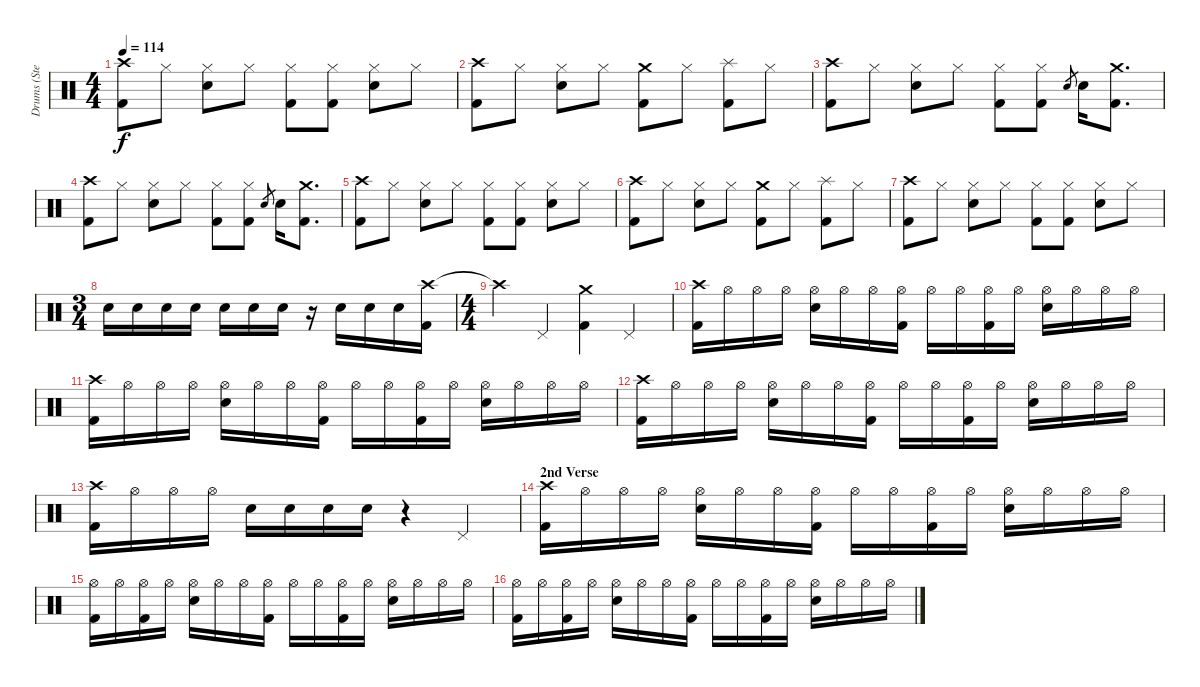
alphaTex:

\track ("Drums (Steven)" "Drums (Ste") {instrument percussion}
\staff {score}
\articulation defaults
\ts (4 4)
\tempo 114
\clef neutral
\ks c
("Crash high (hit)" "Kick (hit) 2").8{dy f} "Hi-Hat (closed)".8 ("Hi-Hat (closed)" "Snare (hit) 2").8 "Hi-Hat (closed)".8 ("Hi-Hat (closed)" "Kick (hit) 2").8 ("Hi-Hat (closed)" "Kick (hit) 2").8 ("Hi-Hat (closed)" "Snare (hit) 2").8 "Hi-Hat (closed)".8 |
("Crash high (hit)" "Kick (hit) 2").8 "Hi-Hat (closed)".8 ("Hi-Hat (closed)" "Snare (hit) 2").8 "Hi-Hat (closed)".8 ("Crash medium (hit)" "Kick (hit) 2").8 "Hi-Hat (closed)".8 ("Splash (hit)" "Kick (hit) 2").8 "Hi-Hat (closed)".8 |
("Crash high (hit)" "Kick (hit) 2").8 "Hi-Hat (closed)".8 ("Hi-Hat (closed)" "Snare (hit) 2").8 "Hi-Hat (closed)".8 ("Hi-Hat (closed)" "Kick (hit) 2").8 ("Hi-Hat (closed)" "Kick (hit) 2").8 "Snare (hit) 2".8{gr} "Snare (hit) 2".16 ("Crash medium (hit)" "Kick (hit) 2").8{d} |
("Crash high (hit)" "Kick (hit) 2").8 "Hi-Hat (closed)".8 ("Hi-Hat (closed)" "Snare (hit) 2").8 "Hi-Hat (closed)".8 ("Hi-Hat (closed)" "Kick (hit) 2").8 ("Hi-Hat (closed)" "Kick (hit) 2").8 "Snare (hit) 2".8{gr} "Snare (hit) 2".16 ("Crash medium (hit)" "Kick (hit) 2").8{d} |
("Crash high (hit)" "Kick (hit) 2").8 "Hi-Hat (closed)".8 ("Hi-Hat (closed)" "Snare (hit) 2").8 "Hi-Hat (closed)".8 ("Hi-Hat (closed)" "Kick (hit) 2").8 ("Hi-Hat (closed)" "Kick (hit) 2").8 ("Hi-Hat (closed)" "Snare (hit) 2").8 "Hi-Hat (closed)".8 |
("Crash high (hit)" "Kick (hit) 2").8 "Hi-Hat (closed)".8 ("Hi-Hat (closed)" "Snare (hit) 2").8 "Hi-Hat (closed)".8 ("Crash medium (hit)" "Kick (hit) 2").8 "Hi-Hat (closed)".8 ("Splash (hit)" "Kick (hit) 2").8 "Hi-Hat (closed)".8 |
("Crash high (hit)" "Kick (hit) 2").8 "Hi-Hat (closed)".8 ("Hi-Hat (closed)" "Snare (hit) 2").8 "Hi-Hat (closed)".8 ("Hi-Hat (closed)" "Kick (hit) 2").8 ("Hi-Hat (closed)" "Kick (hit) 2").8 ("Hi-Hat (closed)" "Snare (hit) 2").8 "Hi-Hat (closed)".8 |
\ts (3 4)
"Snare (hit) 2".16 "Snare (hit) 2".16 "Snare (hit) 2".16 "Snare (hit) 2".16 "Snare (hit) 2".16 "Snare (hit) 2".16 "Snare (hit) 2".16 r.16 "Snare (hit) 2".16 "Snare (hit) 2".16 "Snare (hit) 2".16 ("Crash high (hit)" "Kick (hit) 2").16 |
\ts (4 4)
"Crash high (hit)"{t}.4 "Pedal Hi-Hat (hit)".4 ("Crash medium (hit)" "Kick (hit) 2").4 "Pedal Hi-Hat (hit)".4 |
("Crash high (hit)" "Kick (hit) 2").16 "Hi-Hat (open)".16 "Hi-Hat (open)".16 "Hi-Hat (open)".16 ("Hi-Hat (open)" "Snare (hit) 2").16 "Hi-Hat (open)".16 "Hi-Hat (open)".16 ("Hi-Hat (open)" "Kick (hit) 2").16 "Hi-Hat (open)".16 "Hi-Hat (open)".16 ("Hi-Hat (open)" "Kick (hit) 2").16 "Hi-Hat (open)".16 ("Hi-Hat (open)" "Snare (hit) 2").16 "Hi-Hat (open)".16 "Hi-Hat (open)".16 "Hi-Hat (open)".16 |
("Crash high (hit)" "Kick (hit) 2").16 "Hi-Hat (open)".16 "Hi-Hat (open)".16 "Hi-Hat (open)".16 ("Hi-Hat (open)" "Snare (hit) 2").16 "Hi-Hat (open)".16 "Hi-Hat (open)".16 ("Hi-Hat (open)" "Kick (hit) 2").16 "Hi-Hat (open)".16 "Hi-Hat (open)".16 ("Hi-Hat (open)" "Kick (hit) 2").16 "Hi-Hat (open)".16 ("Hi-Hat (open)" "Snare (hit) 2").16 "Hi-Hat (open)".16 "Hi-Hat (open)".16 "Hi-Hat (open)".16 |
("Crash high (hit)" "Kick (hit) 2").16 "Hi-Hat (open)".16 "Hi-Hat (open)".16 "Hi-Hat (open)".16 ("Hi-Hat (open)" "Snare (hit) 2").16 "Hi-Hat (open)".16 "Hi-Hat (open)".16 ("Hi-Hat (open)" "Kick (hit) 2").16 "Hi-Hat (open)".16 "Hi-Hat (open)".16 ("Hi-Hat (open)" "Kick (hit) 2").16 "Hi-Hat (open)".16 ("Hi-Hat (open)" "Snare (hit) 2").16 "Hi-Hat (open)".16 "Hi-Hat (open)".16 "Hi-Hat (open)".16 |
("Crash high (hit)" "Kick (hit) 2").16 "Hi-Hat (open)".16 "Hi-Hat (open)".16 "Hi-Hat (open)".16 "Snare (hit) 2".16 "Snare (hit) 2".16 "Snare (hit) 2".16 "Snare (hit) 2".16 r.4 "Pedal Hi-Hat (hit)".4 |
\section ("" "2nd Verse")
("Crash high (hit)" "Kick (hit) 2").16 "Hi-Hat (open)".16 "Hi-Hat (open)".16 "Hi-Hat (open)".16 ("Hi-Hat (open)" "Snare (hit) 2").16 "Hi-Hat (open)".16 "Hi-Hat (open)".16 ("Hi-Hat (open)" "Kick (hit) 2").16 "Hi-Hat (open)".16 "Hi-Hat (open)".16 ("Hi-Hat (open)" "Kick (hit) 2").16 "Hi-Hat (open)".16 ("Hi-Hat (open)" "Snare (hit) 2").16 "Hi-Hat (open)".16 "Hi-Hat (open)".16 "Hi-Hat (open)".16 |
("Hi-Hat (open)" "Kick (hit) 2").16 "Hi-Hat (open)".16 ("Hi-Hat (open)" "Kick (hit) 2").16 "Hi-Hat (open)".16 ("Hi-Hat (open)" "Snare (hit) 2").16 "Hi-Hat (open)".16 "Hi-Hat (open)".16 ("Hi-Hat (open)" "Kick (hit) 2").16 "Hi-Hat (open)".16 "Hi-Hat (open)".16 ("Hi-Hat (open)" "Kick (hit) 2").16 "Hi-Hat (open)".16 ("Hi-Hat (open)" "Snare (hit) 2").16 "Hi-Hat (open)".16 "Hi-Hat (open)".16 "Hi-Hat (open)".16 |
("Hi-Hat (open)" "Kick (hit) 2").16 "Hi-Hat (open)".16 ("Hi-Hat (open)" "Kick (hit) 2").16 "Hi-Hat (open)".16 ("Hi-Hat (open)" "Snare (hit) 2").16 "Hi-Hat (open)".16 "Hi-Hat (open)".16 ("Hi-Hat (open)" "Kick (hit) 2").16 "Hi-Hat (open)".16 "Hi-Hat (open)".16 ("Hi-Hat (open)" "Kick (hit) 2").16 "Hi-Hat (open)".16 ("Hi-Hat (open)" "Snare (hit) 2").16 "Hi-Hat (open)".16 "Hi-Hat (open)".16 "Hi-Hat (open)".16
